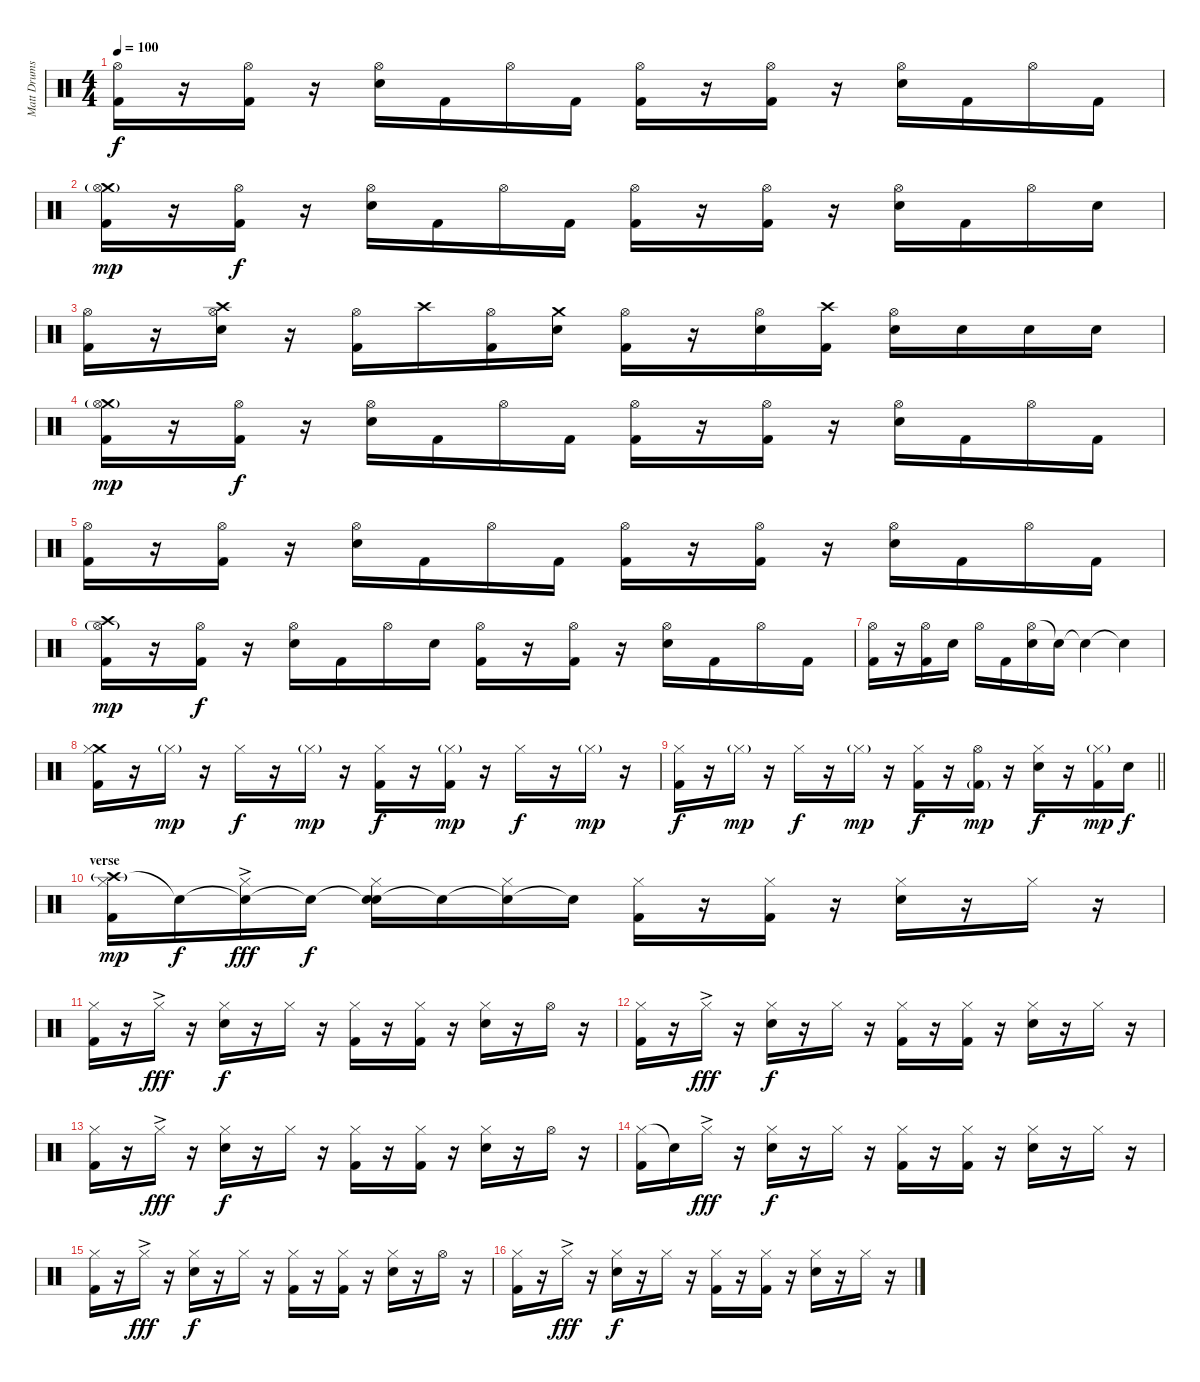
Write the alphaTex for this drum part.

\track ("Matt Drums" "Matt Drums") {instrument percussion}
\staff {score}
\articulation defaults
\ts (4 4)
\tempo 100
\clef neutral
\ks c
("Hi-Hat (open)" "Kick (hit) 2").16{dy f} r.16 ("Hi-Hat (open)" "Kick (hit) 2").16 r.16 ("Hi-Hat (open)" "Electric Snare (hit)").16 "Kick (hit) 2".16 "Hi-Hat (open)".16 "Kick (hit) 2".16 ("Hi-Hat (open)" "Kick (hit) 2").16 r.16 ("Hi-Hat (open)" "Kick (hit) 2").16 r.16 ("Hi-Hat (open)" "Electric Snare (hit)").16 "Kick (hit) 2".16 "Hi-Hat (open)".16 "Kick (hit) 2".16 |
("Crash medium (hit)" "Hi-Hat (open)"{g} "Kick (hit) 2").16{dy mp} r.16 ("Hi-Hat (open)" "Kick (hit) 2").16{dy f} r.16 ("Hi-Hat (open)" "Electric Snare (hit)").16 "Kick (hit) 2".16 "Hi-Hat (open)".16 "Kick (hit) 2".16 ("Hi-Hat (open)" "Kick (hit) 2").16 r.16 ("Hi-Hat (open)" "Kick (hit) 2").16 r.16 ("Hi-Hat (open)" "Electric Snare (hit)").16 "Kick (hit) 2".16 "Hi-Hat (open)".16 "Electric Snare (hit)".16 |
("Hi-Hat (open)" "Kick (hit) 2").16 r.16 ("Crash high (hit)" "Hi-Hat (open)" "Electric Snare (hit)").16 r.16 ("Hi-Hat (open)" "Kick (hit) 2").16 "Crash high (hit)".16 ("Hi-Hat (open)" "Kick (hit) 2").16 ("Crash medium (hit)" "Electric Snare (hit)").16 ("Hi-Hat (open)" "Kick (hit) 2").16 r.16 ("Hi-Hat (open)" "Electric Snare (hit)").16 ("Crash high (hit)" "Kick (hit) 2").16 ("Hi-Hat (open)" "Electric Snare (hit)").16 "Electric Snare (hit)".16 "Electric Snare (hit)".16 "Electric Snare (hit)".16 |
("Crash medium (hit)" "Hi-Hat (open)"{g} "Kick (hit) 2").16{dy mp} r.16 ("Hi-Hat (open)" "Kick (hit) 2").16{dy f} r.16 ("Hi-Hat (open)" "Electric Snare (hit)").16 "Kick (hit) 2".16 "Hi-Hat (open)".16 "Kick (hit) 2".16 ("Hi-Hat (open)" "Kick (hit) 2").16 r.16 ("Hi-Hat (open)" "Kick (hit) 2").16 r.16 ("Hi-Hat (open)" "Electric Snare (hit)").16 "Kick (hit) 2".16 "Hi-Hat (open)".16 "Kick (hit) 2".16 |
("Hi-Hat (open)" "Kick (hit) 2").16 r.16 ("Hi-Hat (open)" "Kick (hit) 2").16 r.16 ("Hi-Hat (open)" "Electric Snare (hit)").16 "Kick (hit) 2".16 "Hi-Hat (open)".16 "Kick (hit) 2".16 ("Hi-Hat (open)" "Kick (hit) 2").16 r.16 ("Hi-Hat (open)" "Kick (hit) 2").16 r.16 ("Hi-Hat (open)" "Electric Snare (hit)").16 "Kick (hit) 2".16 "Hi-Hat (open)".16 "Kick (hit) 2".16 |
("Crash high (hit)" "Hi-Hat (open)"{g} "Kick (hit) 2").16{dy mp} r.16 ("Hi-Hat (open)" "Kick (hit) 2").16{dy f} r.16 ("Hi-Hat (open)" "Electric Snare (hit)").16 "Kick (hit) 2".16 "Hi-Hat (open)".16 "Electric Snare (hit)".16 ("Hi-Hat (open)" "Kick (hit) 2").16 r.16 ("Hi-Hat (open)" "Kick (hit) 2").16 r.16 ("Hi-Hat (open)" "Electric Snare (hit)").16 "Kick (hit) 2".16 "Hi-Hat (open)".16 "Kick (hit) 2".16 |
("Hi-Hat (open)" "Kick (hit) 2").16 r.16 ("Hi-Hat (open)" "Kick (hit) 2").16 "Electric Snare (hit)".16 "Hi-Hat (open)".16 "Kick (hit) 2".16 ("Hi-Hat (open)" "Electric Snare (hit)").16 "Snare (hit)"{t}.16 "Snare (hit)"{t}.4 "Snare (hit)"{t}.4 |
("Crash medium (hit)" "Hi-Hat (closed)" "Kick (hit) 2").16 r.16 "Hi-Hat (closed)"{g}.16{dy mp} r.16 "Hi-Hat (closed)".16{dy f} r.16 "Hi-Hat (closed)"{g}.16{dy mp} r.16 ("Hi-Hat (closed)" "Kick (hit) 2").16{dy f} r.16 ("Hi-Hat (closed)"{g} "Kick (hit) 2").16{dy mp} r.16 "Hi-Hat (closed)".16{dy f} r.16 "Hi-Hat (closed)"{g}.16{dy mp} r.16 |
\barLineRight lightlight
("Hi-Hat (closed)" "Kick (hit) 2").16{dy f} r.16 "Hi-Hat (closed)"{g}.16{dy mp} r.16 "Hi-Hat (closed)".16{dy f} r.16 "Hi-Hat (closed)"{g}.16{dy mp} r.16 ("Hi-Hat (closed)" "Kick (hit) 2").16{dy f} r.16 ("Hi-Hat (open)" "Kick (hit) 2"{g}).16{dy mp} r.16 ("Hi-Hat (closed)" "Electric Snare (hit)").16{dy f} r.16 ("Hi-Hat (closed)"{g} "Kick (hit) 2").16{dy mp} "Electric Snare (hit)".16{dy f} |
\section ("" "verse")
("Crash high (hit)"{g} "Hi-Hat (closed)" "Kick (hit) 2").16{dy mp} "Snare (hit)"{t}.16{dy f} ("Snare (hit)"{t} "Hi-Hat (closed)"{ac}).16{dy fff} "Snare (hit)"{t}.16{dy f} ("Snare (hit)"{t} "Hi-Hat (closed)" "Electric Snare (hit)").16 "Snare (hit)"{t}.16 ("Snare (hit)"{t} "Hi-Hat (closed)").16 "Snare (hit)"{t}.16 ("Hi-Hat (closed)" "Kick (hit) 2").16 r.16 ("Hi-Hat (closed)" "Kick (hit) 2").16 r.16 ("Hi-Hat (closed)" "Electric Snare (hit)").16 r.16 "Hi-Hat (closed)".16 r.16 |
("Hi-Hat (closed)" "Kick (hit) 2").16 r.16 "Hi-Hat (closed)"{ac}.16{dy fff} r.16 ("Hi-Hat (closed)" "Electric Snare (hit)").16{dy f} r.16 "Hi-Hat (closed)".16 r.16 ("Hi-Hat (closed)" "Kick (hit) 2").16 r.16 ("Hi-Hat (closed)" "Kick (hit) 2").16 r.16 ("Hi-Hat (closed)" "Electric Snare (hit)").16 r.16 "Hi-Hat (open)".16 r.16 |
("Hi-Hat (closed)" "Kick (hit) 2").16 r.16 "Hi-Hat (closed)"{ac}.16{dy fff} r.16 ("Hi-Hat (closed)" "Electric Snare (hit)").16{dy f} r.16 "Hi-Hat (closed)".16 r.16 ("Hi-Hat (closed)" "Kick (hit) 2").16 r.16 ("Hi-Hat (closed)" "Kick (hit) 2").16 r.16 ("Hi-Hat (closed)" "Electric Snare (hit)").16 r.16 "Hi-Hat (closed)".16 r.16 |
("Hi-Hat (closed)" "Kick (hit) 2").16 r.16 "Hi-Hat (closed)"{ac}.16{dy fff} r.16 ("Hi-Hat (closed)" "Electric Snare (hit)").16{dy f} r.16 "Hi-Hat (closed)".16 r.16 ("Hi-Hat (closed)" "Kick (hit) 2").16 r.16 ("Hi-Hat (closed)" "Kick (hit) 2").16 r.16 ("Hi-Hat (closed)" "Electric Snare (hit)").16 r.16 "Hi-Hat (open)".16 r.16 |
("Hi-Hat (closed)" "Kick (hit) 2").16 "Snare (hit)"{t}.16 "Hi-Hat (closed)"{ac}.16{dy fff} r.16 ("Hi-Hat (closed)" "Electric Snare (hit)").16{dy f} r.16 "Hi-Hat (closed)".16 r.16 ("Hi-Hat (closed)" "Kick (hit) 2").16 r.16 ("Hi-Hat (closed)" "Kick (hit) 2").16 r.16 ("Hi-Hat (closed)" "Electric Snare (hit)").16 r.16 "Hi-Hat (closed)".16 r.16 |
("Hi-Hat (closed)" "Kick (hit) 2").16 r.16 "Hi-Hat (closed)"{ac}.16{dy fff} r.16 ("Hi-Hat (closed)" "Electric Snare (hit)").16{dy f} r.16 "Hi-Hat (closed)".16 r.16 ("Hi-Hat (closed)" "Kick (hit) 2").16 r.16 ("Hi-Hat (closed)" "Kick (hit) 2").16 r.16 ("Hi-Hat (closed)" "Electric Snare (hit)").16 r.16 "Hi-Hat (open)".16 r.16 |
("Hi-Hat (closed)" "Kick (hit) 2").16 r.16 "Hi-Hat (closed)"{ac}.16{dy fff} r.16 ("Hi-Hat (closed)" "Electric Snare (hit)").16{dy f} r.16 "Hi-Hat (closed)".16 r.16 ("Hi-Hat (closed)" "Kick (hit) 2").16 r.16 ("Hi-Hat (closed)" "Kick (hit) 2").16 r.16 ("Hi-Hat (closed)" "Electric Snare (hit)").16 r.16 "Hi-Hat (closed)".16 r.16
